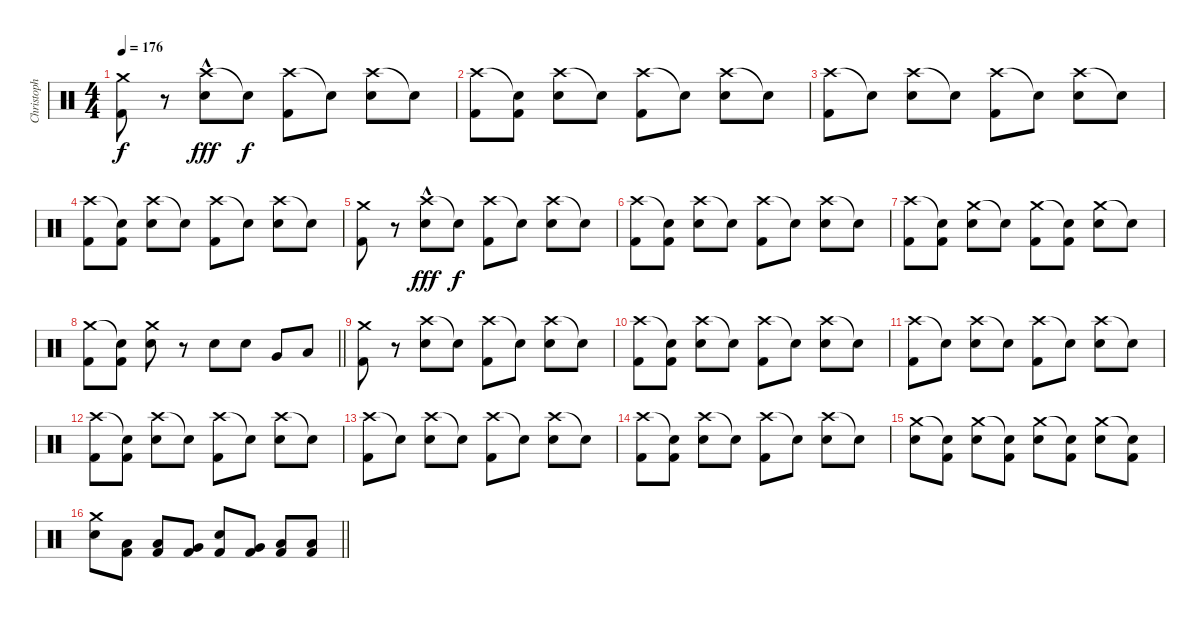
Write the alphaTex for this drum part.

\track ("Christoph" "Christoph") {instrument percussion}
\staff {score}
\articulation defaults
\ts (4 4)
\tempo 176
\clef neutral
\ks c
("Crash medium (hit)" "Kick (hit) 2").8{dy f} r.8 ("Crash high (hit)"{hac} "Snare (hit) 2").8{dy fff} "Snare (hit)"{t}.8{dy f} ("Crash high (hit)" "Kick (hit) 2").8 "Snare (hit)"{t}.8 ("Crash high (hit)" "Snare (hit) 2").8 "Snare (hit)"{t}.8 |
("Crash high (hit)" "Kick (hit) 2").8 ("Snare (hit)"{t} "Kick (hit) 2").8 ("Crash high (hit)" "Snare (hit) 2").8 "Snare (hit)"{t}.8 ("Crash high (hit)" "Kick (hit) 2").8 "Snare (hit)"{t}.8 ("Crash high (hit)" "Snare (hit) 2").8 "Snare (hit)"{t}.8 |
("Crash high (hit)" "Kick (hit) 2").8 "Snare (hit)"{t}.8 ("Crash high (hit)" "Snare (hit) 2").8 "Snare (hit)"{t}.8 ("Crash high (hit)" "Kick (hit) 2").8 "Snare (hit)"{t}.8 ("Crash high (hit)" "Snare (hit) 2").8 "Snare (hit)"{t}.8 |
("Crash high (hit)" "Kick (hit) 2").8 ("Snare (hit)"{t} "Kick (hit) 2").8 ("Crash high (hit)" "Snare (hit) 2").8 "Snare (hit)"{t}.8 ("Crash high (hit)" "Kick (hit) 2").8 "Snare (hit)"{t}.8 ("Crash high (hit)" "Snare (hit) 2").8 "Snare (hit)"{t}.8 |
("Crash medium (hit)" "Kick (hit) 2").8 r.8 ("Crash high (hit)"{hac} "Snare (hit) 2").8{dy fff} "Snare (hit)"{t}.8{dy f} ("Crash high (hit)" "Kick (hit) 2").8 "Snare (hit)"{t}.8 ("Crash high (hit)" "Snare (hit) 2").8 "Snare (hit)"{t}.8 |
("Crash high (hit)" "Kick (hit) 2").8 ("Snare (hit)"{t} "Kick (hit) 2").8 ("Crash high (hit)" "Snare (hit) 2").8 "Snare (hit)"{t}.8 ("Crash high (hit)" "Kick (hit) 2").8 "Snare (hit)"{t}.8 ("Crash high (hit)" "Snare (hit) 2").8 "Snare (hit)"{t}.8 |
("Crash high (hit)" "Kick (hit) 2").8 ("Snare (hit)"{t} "Kick (hit) 2").8 ("Crash medium (hit)" "Snare (hit) 2").8 "Snare (hit)"{t}.8 ("Crash medium (hit)" "Kick (hit) 2").8 ("Snare (hit)"{t} "Kick (hit) 2").8 ("Crash medium (hit)" "Snare (hit) 2").8 "Snare (hit)"{t}.8 |
\barLineRight lightlight
("Crash medium (hit)" "Kick (hit) 2").8 ("Snare (hit)"{t} "Kick (hit) 2").8 ("Crash medium (hit)" "Snare (hit) 2").8 r.8 "Snare (hit) 2".8 "Snare (hit) 2".8 "Very Low Tom (hit)".8 "Low Floor Tom (hit)".8 |
("Crash medium (hit)" "Kick (hit) 2").8 r.8 ("Crash high (hit)" "Snare (hit) 2").8 "Snare (hit)"{t}.8 ("Crash high (hit)" "Kick (hit) 2").8 "Snare (hit)"{t}.8 ("Crash high (hit)" "Snare (hit) 2").8 "Snare (hit)"{t}.8 |
("Crash high (hit)" "Kick (hit) 2").8 ("Snare (hit)"{t} "Kick (hit) 2").8 ("Crash high (hit)" "Snare (hit) 2").8 "Snare (hit)"{t}.8 ("Crash high (hit)" "Kick (hit) 2").8 "Snare (hit)"{t}.8 ("Crash high (hit)" "Snare (hit) 2").8 "Snare (hit)"{t}.8 |
("Crash high (hit)" "Kick (hit) 2").8 "Snare (hit)"{t}.8 ("Crash high (hit)" "Snare (hit) 2").8 "Snare (hit)"{t}.8 ("Crash high (hit)" "Kick (hit) 2").8 "Snare (hit)"{t}.8 ("Crash high (hit)" "Snare (hit) 2").8 "Snare (hit)"{t}.8 |
("Crash high (hit)" "Kick (hit) 2").8 ("Snare (hit)"{t} "Kick (hit) 2").8 ("Crash high (hit)" "Snare (hit) 2").8 "Snare (hit)"{t}.8 ("Crash high (hit)" "Kick (hit) 2").8 "Snare (hit)"{t}.8 ("Crash high (hit)" "Snare (hit) 2").8 "Snare (hit)"{t}.8 |
("Crash high (hit)" "Kick (hit) 2").8 "Snare (hit)"{t}.8 ("Crash high (hit)" "Snare (hit) 2").8 "Snare (hit)"{t}.8 ("Crash high (hit)" "Kick (hit) 2").8 "Snare (hit)"{t}.8 ("Crash high (hit)" "Snare (hit) 2").8 "Snare (hit)"{t}.8 |
("Crash high (hit)" "Kick (hit) 2").8 ("Snare (hit)"{t} "Kick (hit) 2").8 ("Crash high (hit)" "Snare (hit) 2").8 "Snare (hit)"{t}.8 ("Crash high (hit)" "Kick (hit) 2").8 "Snare (hit)"{t}.8 ("Crash high (hit)" "Snare (hit) 2").8 "Snare (hit)"{t}.8 |
("Crash medium (hit)" "Snare (hit) 2").8 ("Snare (hit)"{t} "Kick (hit) 2").8 ("Crash medium (hit)" "Snare (hit) 2").8 ("Snare (hit)"{t} "Kick (hit) 2").8 ("Crash medium (hit)" "Snare (hit) 2").8 ("Snare (hit)"{t} "Kick (hit) 2").8 ("Crash medium (hit)" "Snare (hit) 2").8 ("Snare (hit)"{t} "Kick (hit) 2").8 |
\barLineRight lightlight
("Crash medium (hit)" "Snare (hit) 2").8 ("Low Tom (hit)" "Kick (hit) 2").8 ("Low Tom (hit)" "Kick (hit) 2").8 ("Very Low Tom (hit)" "Kick (hit) 2").8 ("Snare (hit) 2" "Kick (hit) 2").8 ("Very Low Tom (hit)" "Kick (hit) 2").8 ("Low Floor Tom (hit)" "Kick (hit) 2").8 ("Low Floor Tom (hit)" "Kick (hit) 2").8
